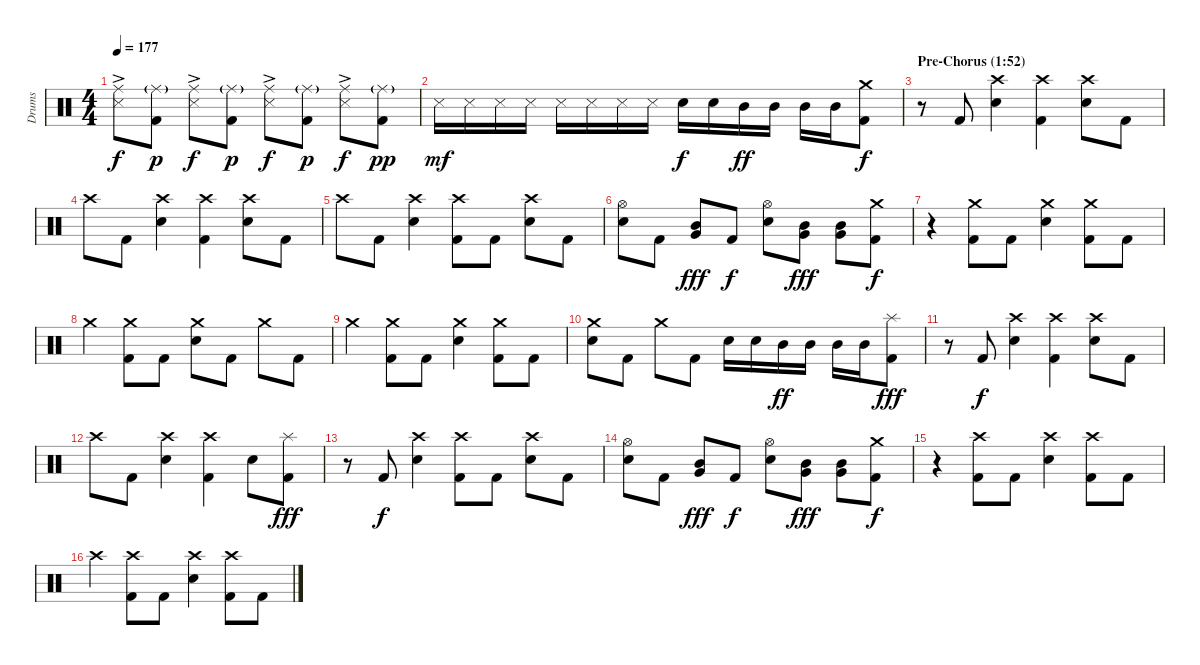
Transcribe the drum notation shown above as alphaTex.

\track ("Drums" "Drums") {instrument percussion}
\staff {score}
\articulation defaults
\ts (4 4)
\tempo 177
\clef neutral
\ks c
("Ride (middle)"{ac} "Snare (side stick) 3").8{dy f} ("Ride (middle)"{g} "Kick (hit) 2").8{dy p} ("Ride (middle)"{ac} "Snare (side stick) 3").8{dy f} ("Ride (middle)"{g} "Kick (hit) 2").8{dy p} ("Ride (middle)"{ac} "Snare (side stick) 3").8{dy f} ("Ride (middle)"{g} "Kick (hit) 2").8{dy p} ("Ride (middle)"{ac} "Snare (side stick) 3").8{dy f} ("Ride (middle)"{g} "Kick (hit) 2").8{dy pp} |
"Metronome (hit)".16{dy mf} "Metronome (hit)".16 "Metronome (hit)".16 "Metronome (hit)".16 "Metronome (hit)".16 "Metronome (hit)".16 "Metronome (hit)".16 "Metronome (hit)".16 "Snare (hit) 2".16{dy f} "Snare (hit) 2".16 "Mid Tom (hit)".16{dy ff} "Mid Tom (hit)".16 "Mid Tom (hit)".16 "Mid Tom (hit)".16 ("Crash medium (hit)" "Kick (hit) 2").8{dy f} |
\section ("" "Pre-Chorus (1:52)")
r.8 "Kick (hit) 2".8 ("Crash high (hit)" "Snare (hit) 2").4 ("Crash high (hit)" "Kick (hit) 2").4 ("Crash high (hit)" "Snare (hit) 2").8 "Kick (hit) 2".8 |
"Crash high (hit)".8 "Kick (hit) 2".8 ("Crash high (hit)" "Snare (hit) 2").4 ("Crash high (hit)" "Kick (hit) 2").4 ("Crash high (hit)" "Snare (hit) 2").8 "Kick (hit) 2".8 |
"Crash high (hit)".8 "Kick (hit) 2".8 ("Crash high (hit)" "Snare (hit) 2").4 ("Crash high (hit)" "Kick (hit) 2").8 "Kick (hit) 2".8 ("Crash high (hit)" "Snare (hit) 2").8 "Kick (hit) 2".8 |
("Hi-Hat (open)" "Snare (hit) 2").8 "Kick (hit) 2".8 ("Mid Tom (hit)" "Very Low Tom (hit)").8{dy fff} "Kick (hit) 2".8{dy f} ("Hi-Hat (open)" "Snare (hit) 2").8 ("Mid Tom (hit)" "Very Low Tom (hit)").8{dy fff} ("Mid Tom (hit)" "Very Low Tom (hit)").8 ("Crash medium (hit)" "Kick (hit) 2").8{dy f} |
r.4 ("Crash medium (hit)" "Kick (hit) 2").8 "Kick (hit) 2".8 ("Crash medium (hit)" "Snare (hit) 2").4 ("Crash medium (hit)" "Kick (hit) 2").8 "Kick (hit) 2".8 |
"Crash medium (hit)".4 ("Crash medium (hit)" "Kick (hit) 2").8 "Kick (hit) 2".8 ("Crash medium (hit)" "Snare (hit) 2").8 "Kick (hit) 2".8 "Crash medium (hit)".8 "Kick (hit) 2".8 |
"Crash medium (hit)".4 ("Crash medium (hit)" "Kick (hit) 2").8 "Kick (hit) 2".8 ("Crash medium (hit)" "Snare (hit) 2").4 ("Crash medium (hit)" "Kick (hit) 2").8 "Kick (hit) 2".8 |
("Crash medium (hit)" "Snare (hit) 2").8 "Kick (hit) 2".8 "Crash medium (hit)".8 "Kick (hit) 2".8 "Snare (hit) 2".16 "Snare (hit) 2".16 "Mid Tom (hit)".16{dy ff} "Mid Tom (hit)".16 "Mid Tom (hit)".16 "Mid Tom (hit)".16 ("Splash (hit)" "Kick (hit) 2").8{dy fff} |
r.8 "Kick (hit) 2".8{dy f} ("Crash high (hit)" "Snare (hit) 2").4 ("Crash high (hit)" "Kick (hit) 2").4 ("Crash high (hit)" "Snare (hit) 2").8 "Kick (hit) 2".8 |
"Crash high (hit)".8 "Kick (hit) 2".8 ("Crash high (hit)" "Snare (hit) 2").4 ("Crash high (hit)" "Kick (hit) 2").4 "Snare (hit) 2".8 ("Splash (hit)" "Kick (hit) 2").8{dy fff} |
r.8 "Kick (hit) 2".8{dy f} ("Crash high (hit)" "Snare (hit) 2").4 ("Crash high (hit)" "Kick (hit) 2").8 "Kick (hit) 2".8 ("Crash high (hit)" "Snare (hit) 2").8 "Kick (hit) 2".8 |
("Hi-Hat (open)" "Snare (hit) 2").8 "Kick (hit) 2".8 ("Mid Tom (hit)" "Very Low Tom (hit)").8{dy fff} "Kick (hit) 2".8{dy f} ("Hi-Hat (open)" "Snare (hit) 2").8 ("Mid Tom (hit)" "Very Low Tom (hit)").8{dy fff} ("Mid Tom (hit)" "Very Low Tom (hit)").8 ("Crash medium (hit)" "Kick (hit) 2").8{dy f} |
r.4 ("Crash high (hit)" "Kick (hit) 2").8 "Kick (hit) 2".8 ("Crash high (hit)" "Snare (hit) 2").4 ("Crash high (hit)" "Kick (hit) 2").8 "Kick (hit) 2".8 |
"Crash high (hit)".4 ("Crash high (hit)" "Kick (hit) 2").8 "Kick (hit) 2".8 ("Crash high (hit)" "Snare (hit) 2").4 ("Crash high (hit)" "Kick (hit) 2").8 "Kick (hit) 2".8
